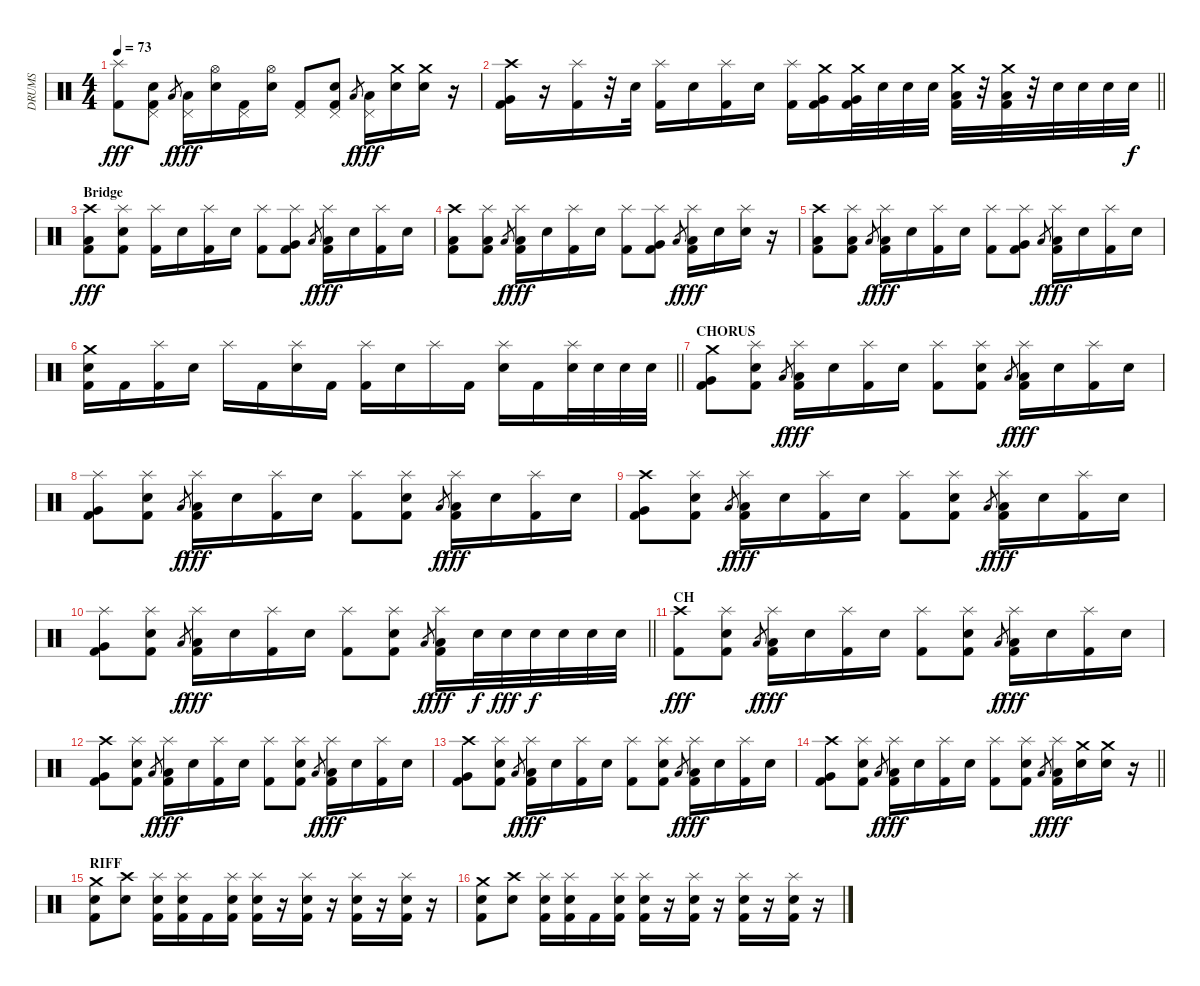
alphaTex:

\track ("DRUMS" "DRUMS") {instrument percussion}
\staff {score}
\articulation defaults
\ts (4 4)
\tempo 73
\clef neutral
\ks c
("Splash (hit)" "Kick (hit) 2").8{dy fff} ("Pedal Hi-Hat (hit)" "Electric Snare (hit)" "Kick (hit) 2").8 "Low Tom (hit)".8{gr dy f} ("Pedal Hi-Hat (hit)" "Low Tom (hit)").16{dy fff} ("Hi-Hat (open)" "Electric Snare (hit)").16 ("Pedal Hi-Hat (hit)" "Kick (hit) 2").16 ("Hi-Hat (open)" "Electric Snare (hit)").16 ("Pedal Hi-Hat (hit)" "Kick (hit) 2").8 ("Pedal Hi-Hat (hit)" "Electric Snare (hit)" "Kick (hit) 2").8 "Low Tom (hit)".8{gr dy f} ("Pedal Hi-Hat (hit)" "Low Tom (hit)").16{dy fff} ("Crash medium (hit)" "Electric Snare (hit)").16 ("Crash medium (hit)" "Electric Snare (hit)").16 r.16 |
\barLineRight lightlight
("Crash high (hit)" "Very Low Tom (hit)" "Kick (hit) 2").16 r.16 ("Splash (hit)" "Kick (hit) 2").16 r.32 "Electric Snare (hit)".32 ("Splash (hit)" "Kick (hit) 2").16 "Electric Snare (hit)".16 ("Splash (hit)" "Kick (hit) 2").16 "Electric Snare (hit)".16 ("Splash (hit)" "Kick (hit) 2").16 ("Crash medium (hit)" "Very Low Tom (hit)" "Kick (hit) 2").16 ("Crash medium (hit)" "Very Low Tom (hit)" "Kick (hit) 2").32 "Electric Snare (hit)".32 "Electric Snare (hit)".32 "Electric Snare (hit)".32 ("Crash medium (hit)" "Low Tom (hit)" "Kick (hit) 2").32 r.32 ("Crash medium (hit)" "Low Tom (hit)" "Kick (hit) 2").32 r.32 "Electric Snare (hit)".32 "Electric Snare (hit)".32 "Electric Snare (hit)".32 "Electric Snare (hit)".32{dy f} |
\section ("" "Bridge")
("Crash high (hit)" "Low Tom (hit)" "Kick (hit) 2").8{dy fff} ("Splash (hit)" "Electric Snare (hit)" "Kick (hit) 2").8 ("Splash (hit)" "Kick (hit) 2").16 "Electric Snare (hit)".16 ("Splash (hit)" "Kick (hit) 2").16 "Electric Snare (hit)".16 ("Splash (hit)" "Kick (hit) 2").8 ("Splash (hit)" "Very Low Tom (hit)" "Kick (hit) 2").8 "Low Tom (hit)".8{gr dy f} ("Splash (hit)" "Low Tom (hit)" "Kick (hit) 2").16{dy fff} "Electric Snare (hit)".16 ("Splash (hit)" "Kick (hit) 2").16 "Electric Snare (hit)".16 |
("Crash high (hit)" "Low Tom (hit)" "Kick (hit) 2").8 ("Splash (hit)" "Low Tom (hit)" "Kick (hit) 2").8 "Low Tom (hit)".8{gr dy f} ("Splash (hit)" "Low Tom (hit)" "Kick (hit) 2").16{dy fff} "Electric Snare (hit)".16 ("Splash (hit)" "Kick (hit) 2").16 "Electric Snare (hit)".16 ("Splash (hit)" "Kick (hit) 2").8 ("Splash (hit)" "Very Low Tom (hit)" "Kick (hit) 2").8 "Low Tom (hit)".8{gr dy f} ("Splash (hit)" "Low Tom (hit)" "Kick (hit) 2").16{dy fff} "Electric Snare (hit)".16 ("Splash (hit)" "Electric Snare (hit)").16 r.16 |
("Crash high (hit)" "Low Tom (hit)" "Kick (hit) 2").8 ("Splash (hit)" "Low Tom (hit)" "Kick (hit) 2").8 "Low Tom (hit)".8{gr dy f} ("Splash (hit)" "Low Tom (hit)" "Kick (hit) 2").16{dy fff} "Electric Snare (hit)".16 ("Splash (hit)" "Kick (hit) 2").16 "Electric Snare (hit)".16 ("Splash (hit)" "Kick (hit) 2").8 ("Splash (hit)" "Very Low Tom (hit)" "Kick (hit) 2").8 "Low Tom (hit)".8{gr dy f} ("Splash (hit)" "Low Tom (hit)" "Kick (hit) 2").16{dy fff} "Electric Snare (hit)".16 ("Splash (hit)" "Kick (hit) 2").16 "Electric Snare (hit)".16 |
\barLineRight lightlight
("Crash medium (hit)" "Electric Snare (hit)" "Kick (hit) 2").16 "Kick (hit) 2".16 ("Splash (hit)" "Kick (hit) 2").16 "Electric Snare (hit)".16 "Splash (hit)".16 "Kick (hit) 2".16 ("Splash (hit)" "Electric Snare (hit)").16 "Kick (hit) 2".16 ("Splash (hit)" "Kick (hit) 2").16 "Electric Snare (hit)".16 "Splash (hit)".16 "Kick (hit) 2".16 ("Splash (hit)" "Electric Snare (hit)").16 "Kick (hit) 2".16 ("Splash (hit)" "Electric Snare (hit)").32 "Electric Snare (hit)".32 "Electric Snare (hit)".32 "Electric Snare (hit)".32 |
\section ("" "CHORUS")
("Crash medium (hit)" "Very Low Tom (hit)" "Kick (hit) 2").8 ("Splash (hit)" "Electric Snare (hit)" "Kick (hit) 2").8 "Low Tom (hit)".8{gr dy f} ("Splash (hit)" "Low Tom (hit)" "Kick (hit) 2").16{dy fff} "Electric Snare (hit)".16 ("Splash (hit)" "Kick (hit) 2").16 "Electric Snare (hit)".16 ("Splash (hit)" "Kick (hit) 2").8 ("Splash (hit)" "Electric Snare (hit)" "Kick (hit) 2").8 "Low Tom (hit)".8{gr dy f} ("Splash (hit)" "Low Tom (hit)" "Kick (hit) 2").16{dy fff} "Electric Snare (hit)".16 ("Splash (hit)" "Kick (hit) 2").16 "Electric Snare (hit)".16 |
("Splash (hit)" "Very Low Tom (hit)" "Kick (hit) 2").8 ("Splash (hit)" "Electric Snare (hit)" "Kick (hit) 2").8 "Low Tom (hit)".8{gr dy f} ("Splash (hit)" "Low Tom (hit)" "Kick (hit) 2").16{dy fff} "Electric Snare (hit)".16 ("Splash (hit)" "Kick (hit) 2").16 "Electric Snare (hit)".16 ("Splash (hit)" "Kick (hit) 2").8 ("Splash (hit)" "Electric Snare (hit)" "Kick (hit) 2").8 "Low Tom (hit)".8{gr dy f} ("Splash (hit)" "Low Tom (hit)" "Kick (hit) 2").16{dy fff} "Electric Snare (hit)".16 ("Splash (hit)" "Kick (hit) 2").16 "Electric Snare (hit)".16 |
("Crash high (hit)" "Very Low Tom (hit)" "Kick (hit) 2").8 ("Splash (hit)" "Electric Snare (hit)" "Kick (hit) 2").8 "Low Tom (hit)".8{gr dy f} ("Splash (hit)" "Low Tom (hit)" "Kick (hit) 2").16{dy fff} "Electric Snare (hit)".16 ("Splash (hit)" "Kick (hit) 2").16 "Electric Snare (hit)".16 ("Splash (hit)" "Kick (hit) 2").8 ("Splash (hit)" "Electric Snare (hit)" "Kick (hit) 2").8 "Low Tom (hit)".8{gr dy f} ("Splash (hit)" "Low Tom (hit)" "Kick (hit) 2").16{dy fff} "Electric Snare (hit)".16 ("Splash (hit)" "Kick (hit) 2").16 "Electric Snare (hit)".16 |
\barLineRight lightlight
("Splash (hit)" "Very Low Tom (hit)" "Kick (hit) 2").8 ("Splash (hit)" "Electric Snare (hit)" "Kick (hit) 2").8 "Low Tom (hit)".8{gr dy f} ("Splash (hit)" "Low Tom (hit)" "Kick (hit) 2").16{dy fff} "Electric Snare (hit)".16 ("Splash (hit)" "Kick (hit) 2").16 "Electric Snare (hit)".16 ("Splash (hit)" "Kick (hit) 2").8 ("Splash (hit)" "Electric Snare (hit)" "Kick (hit) 2").8 "Low Tom (hit)".8{gr dy f} ("Splash (hit)" "Low Tom (hit)" "Kick (hit) 2").16{dy fff} "Electric Snare (hit)".32{dy f} "Electric Snare (hit)".32{dy fff} "Electric Snare (hit)".32{dy f} "Electric Snare (hit)".32 "Electric Snare (hit)".32 "Electric Snare (hit)".32 |
\section ("" "CH")
("Crash high (hit)" "Kick (hit) 2").8{dy fff} ("Splash (hit)" "Electric Snare (hit)" "Kick (hit) 2").8 "Low Tom (hit)".8{gr dy f} ("Splash (hit)" "Low Tom (hit)" "Kick (hit) 2").16{dy fff} "Electric Snare (hit)".16 ("Splash (hit)" "Kick (hit) 2").16 "Electric Snare (hit)".16 ("Splash (hit)" "Kick (hit) 2").8 ("Splash (hit)" "Electric Snare (hit)" "Kick (hit) 2").8 "Low Tom (hit)".8{gr dy f} ("Splash (hit)" "Low Tom (hit)" "Kick (hit) 2").16{dy fff} "Electric Snare (hit)".16 ("Splash (hit)" "Kick (hit) 2").16 "Electric Snare (hit)".16 |
("Crash high (hit)" "Very Low Tom (hit)" "Kick (hit) 2").8 ("Splash (hit)" "Electric Snare (hit)" "Kick (hit) 2").8 "Low Tom (hit)".8{gr dy f} ("Splash (hit)" "Low Tom (hit)" "Kick (hit) 2").16{dy fff} "Electric Snare (hit)".16 ("Splash (hit)" "Kick (hit) 2").16 "Electric Snare (hit)".16 ("Splash (hit)" "Kick (hit) 2").8 ("Splash (hit)" "Electric Snare (hit)" "Kick (hit) 2").8 "Low Tom (hit)".8{gr dy f} ("Splash (hit)" "Low Tom (hit)" "Kick (hit) 2").16{dy fff} "Electric Snare (hit)".16 ("Splash (hit)" "Kick (hit) 2").16 "Electric Snare (hit)".16 |
("Crash high (hit)" "Very Low Tom (hit)" "Kick (hit) 2").8 ("Splash (hit)" "Electric Snare (hit)" "Kick (hit) 2").8 "Low Tom (hit)".8{gr dy f} ("Splash (hit)" "Low Tom (hit)" "Kick (hit) 2").16{dy fff} "Electric Snare (hit)".16 ("Splash (hit)" "Kick (hit) 2").16 "Electric Snare (hit)".16 ("Splash (hit)" "Kick (hit) 2").8 ("Splash (hit)" "Electric Snare (hit)" "Kick (hit) 2").8 "Low Tom (hit)".8{gr dy f} ("Splash (hit)" "Low Tom (hit)" "Kick (hit) 2").16{dy fff} "Electric Snare (hit)".16 ("Splash (hit)" "Kick (hit) 2").16 "Electric Snare (hit)".16 |
\barLineRight lightlight
("Crash high (hit)" "Very Low Tom (hit)" "Kick (hit) 2").8 ("Splash (hit)" "Electric Snare (hit)" "Kick (hit) 2").8 "Low Tom (hit)".8{gr dy f} ("Splash (hit)" "Low Tom (hit)" "Kick (hit) 2").16{dy fff} "Electric Snare (hit)".16 ("Splash (hit)" "Kick (hit) 2").16 "Electric Snare (hit)".16 ("Splash (hit)" "Kick (hit) 2").8 ("Splash (hit)" "Electric Snare (hit)" "Kick (hit) 2").8 "Low Tom (hit)".8{gr dy f} ("Splash (hit)" "Low Tom (hit)" "Kick (hit) 2").16{dy fff} ("Crash medium (hit)" "Electric Snare (hit)").16 ("Crash medium (hit)" "Electric Snare (hit)").16 r.16 |
\section ("" "RIFF")
("Crash medium (hit)" "Electric Snare (hit)" "Kick (hit) 2").8 ("Crash high (hit)" "Electric Snare (hit)").8 ("Splash (hit)" "Electric Snare (hit)" "Kick (hit) 2").16 ("Splash (hit)" "Electric Snare (hit)" "Kick (hit) 2").16 "Kick (hit) 2".16 ("Splash (hit)" "Electric Snare (hit)" "Kick (hit) 2").16 ("Splash (hit)" "Electric Snare (hit)" "Kick (hit) 2").16 r.16 ("Splash (hit)" "Electric Snare (hit)" "Kick (hit) 2").16 r.16 ("Splash (hit)" "Electric Snare (hit)" "Kick (hit) 2").16 r.16 ("Splash (hit)" "Electric Snare (hit)" "Kick (hit) 2").16 r.16 |
("Crash medium (hit)" "Electric Snare (hit)" "Kick (hit) 2").8 ("Crash high (hit)" "Electric Snare (hit)").8 ("Splash (hit)" "Electric Snare (hit)" "Kick (hit) 2").16 ("Splash (hit)" "Electric Snare (hit)" "Kick (hit) 2").16 "Kick (hit) 2".16 ("Splash (hit)" "Electric Snare (hit)" "Kick (hit) 2").16 ("Splash (hit)" "Electric Snare (hit)" "Kick (hit) 2").16 r.16 ("Splash (hit)" "Electric Snare (hit)" "Kick (hit) 2").16 r.16 ("Splash (hit)" "Electric Snare (hit)" "Kick (hit) 2").16 r.16 ("Splash (hit)" "Electric Snare (hit)" "Kick (hit) 2").16 r.16
